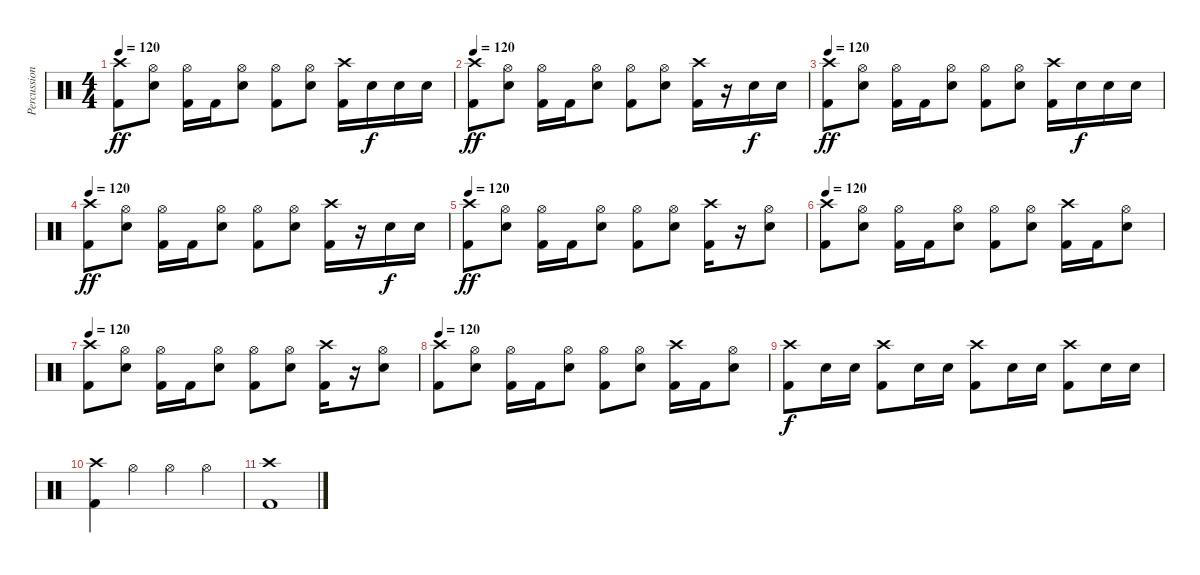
\track ("Percussion" "Percussion") {instrument percussion}
\staff {score}
\articulation defaults
\ts (4 4)
\tempo 120
\clef neutral
\ks c
("Crash high (hit)" "Kick (hit) 2").8{dy ff} ("Hi-Hat (open)" "Snare (hit) 2").8 ("Hi-Hat (open)" "Kick (hit) 2").16 "Kick (hit) 2".16 ("Hi-Hat (open)" "Snare (hit) 2").8 ("Hi-Hat (open)" "Kick (hit) 2").8 ("Hi-Hat (open)" "Snare (hit) 2").8 ("Crash high (hit)" "Kick (hit) 2").16 "Snare (hit) 2".16{dy f} "Snare (hit) 2".16 "Snare (hit) 2".16 |
\tempo 120
("Crash high (hit)" "Kick (hit) 2").8{dy ff} ("Hi-Hat (open)" "Snare (hit) 2").8 ("Hi-Hat (open)" "Kick (hit) 2").16 "Kick (hit) 2".16 ("Hi-Hat (open)" "Snare (hit) 2").8 ("Hi-Hat (open)" "Kick (hit) 2").8 ("Hi-Hat (open)" "Snare (hit) 2").8 ("Crash high (hit)" "Kick (hit) 2").16 r.16 "Snare (hit) 2".16{dy f} "Snare (hit) 2".16 |
\tempo 120
("Crash high (hit)" "Kick (hit) 2").8{dy ff} ("Hi-Hat (open)" "Snare (hit) 2").8 ("Hi-Hat (open)" "Kick (hit) 2").16 "Kick (hit) 2".16 ("Hi-Hat (open)" "Snare (hit) 2").8 ("Hi-Hat (open)" "Kick (hit) 2").8 ("Hi-Hat (open)" "Snare (hit) 2").8 ("Crash high (hit)" "Kick (hit) 2").16 "Snare (hit) 2".16{dy f} "Snare (hit) 2".16 "Snare (hit) 2".16 |
\tempo 120
("Crash high (hit)" "Kick (hit) 2").8{dy ff} ("Hi-Hat (open)" "Snare (hit) 2").8 ("Hi-Hat (open)" "Kick (hit) 2").16 "Kick (hit) 2".16 ("Hi-Hat (open)" "Snare (hit) 2").8 ("Hi-Hat (open)" "Kick (hit) 2").8 ("Hi-Hat (open)" "Snare (hit) 2").8 ("Crash high (hit)" "Kick (hit) 2").16 r.16 "Snare (hit) 2".16{dy f} "Snare (hit) 2".16 |
\tempo 120
("Crash high (hit)" "Kick (hit) 2").8{dy ff} ("Hi-Hat (open)" "Snare (hit) 2").8 ("Hi-Hat (open)" "Kick (hit) 2").16 "Kick (hit) 2".16 ("Hi-Hat (open)" "Snare (hit) 2").8 ("Hi-Hat (open)" "Kick (hit) 2").8 ("Hi-Hat (open)" "Snare (hit) 2").8 ("Crash high (hit)" "Kick (hit) 2").16 r.16 ("Hi-Hat (open)" "Snare (hit) 2").8 |
\tempo 120
("Crash high (hit)" "Kick (hit) 2").8 ("Hi-Hat (open)" "Snare (hit) 2").8 ("Hi-Hat (open)" "Kick (hit) 2").16 "Kick (hit) 2".16 ("Hi-Hat (open)" "Snare (hit) 2").8 ("Hi-Hat (open)" "Kick (hit) 2").8 ("Hi-Hat (open)" "Snare (hit) 2").8 ("Crash high (hit)" "Kick (hit) 2").16 "Kick (hit) 2".16 ("Hi-Hat (open)" "Snare (hit) 2").8 |
\tempo 120
("Crash high (hit)" "Kick (hit) 2").8 ("Hi-Hat (open)" "Snare (hit) 2").8 ("Hi-Hat (open)" "Kick (hit) 2").16 "Kick (hit) 2".16 ("Hi-Hat (open)" "Snare (hit) 2").8 ("Hi-Hat (open)" "Kick (hit) 2").8 ("Hi-Hat (open)" "Snare (hit) 2").8 ("Crash high (hit)" "Kick (hit) 2").16 r.16 ("Hi-Hat (open)" "Snare (hit) 2").8 |
\tempo 120
("Crash high (hit)" "Kick (hit) 2").8 ("Hi-Hat (open)" "Snare (hit) 2").8 ("Hi-Hat (open)" "Kick (hit) 2").16 "Kick (hit) 2".16 ("Hi-Hat (open)" "Snare (hit) 2").8 ("Hi-Hat (open)" "Kick (hit) 2").8 ("Hi-Hat (open)" "Snare (hit) 2").8 ("Crash high (hit)" "Kick (hit) 2").16 "Kick (hit) 2".16 ("Hi-Hat (open)" "Snare (hit) 2").8 |
("Crash high (hit)" "Kick (hit) 2").8{dy f} "Snare (hit) 2".16 "Snare (hit) 2".16 ("Crash high (hit)" "Kick (hit) 2").8 "Snare (hit) 2".16 "Snare (hit) 2".16 ("Crash high (hit)" "Kick (hit) 2").8 "Snare (hit) 2".16 "Snare (hit) 2".16 ("Kick (hit) 2" "Crash high (hit)").8 "Snare (hit) 2".16 "Snare (hit) 2".16 |
("Crash high (hit)" "Kick (hit) 2").4 "Hi-Hat (open)".4 "Hi-Hat (open)".4 "Hi-Hat (open)".4 |
("Crash high (hit)" "Kick (hit) 2").1
